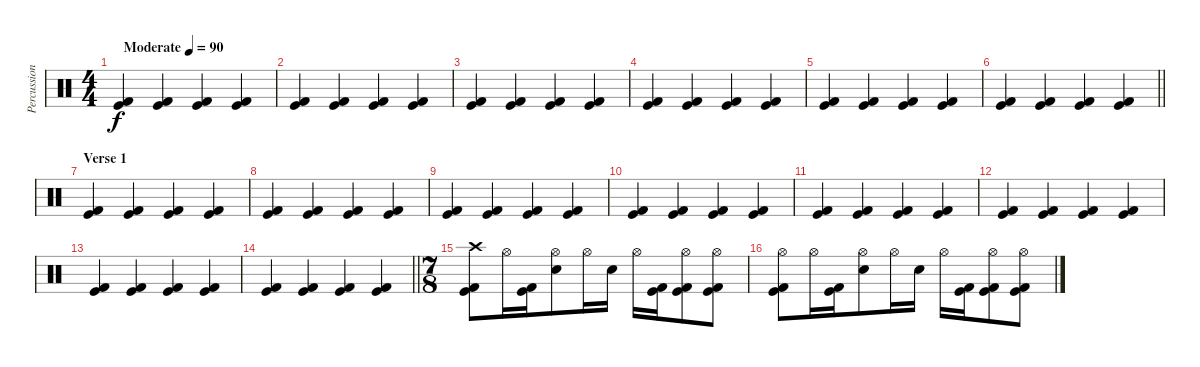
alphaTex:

\track ("Percussion" "Percussion") {instrument percussion}
\staff {score}
\articulation defaults
\ts (4 4)
\tempo (90 "Moderate")
\clef neutral
\ks c
("Kick (hit)" "Kick (hit) 2").4{dy f} ("Kick (hit)" "Kick (hit) 2").4 ("Kick (hit)" "Kick (hit) 2").4 ("Kick (hit)" "Kick (hit) 2").4 |
("Kick (hit)" "Kick (hit) 2").4 ("Kick (hit)" "Kick (hit) 2").4 ("Kick (hit)" "Kick (hit) 2").4 ("Kick (hit)" "Kick (hit) 2").4 |
("Kick (hit)" "Kick (hit) 2").4 ("Kick (hit)" "Kick (hit) 2").4 ("Kick (hit)" "Kick (hit) 2").4 ("Kick (hit)" "Kick (hit) 2").4 |
("Kick (hit)" "Kick (hit) 2").4 ("Kick (hit)" "Kick (hit) 2").4 ("Kick (hit)" "Kick (hit) 2").4 ("Kick (hit)" "Kick (hit) 2").4 |
("Kick (hit)" "Kick (hit) 2").4 ("Kick (hit)" "Kick (hit) 2").4 ("Kick (hit)" "Kick (hit) 2").4 ("Kick (hit)" "Kick (hit) 2").4 |
\barLineRight lightlight
("Kick (hit)" "Kick (hit) 2").4 ("Kick (hit)" "Kick (hit) 2").4 ("Kick (hit)" "Kick (hit) 2").4 ("Kick (hit)" "Kick (hit) 2").4 |
\section ("" "Verse 1")
("Kick (hit)" "Kick (hit) 2").4 ("Kick (hit)" "Kick (hit) 2").4 ("Kick (hit)" "Kick (hit) 2").4 ("Kick (hit)" "Kick (hit) 2").4 |
("Kick (hit)" "Kick (hit) 2").4 ("Kick (hit)" "Kick (hit) 2").4 ("Kick (hit)" "Kick (hit) 2").4 ("Kick (hit)" "Kick (hit) 2").4 |
("Kick (hit)" "Kick (hit) 2").4 ("Kick (hit)" "Kick (hit) 2").4 ("Kick (hit)" "Kick (hit) 2").4 ("Kick (hit)" "Kick (hit) 2").4 |
("Kick (hit)" "Kick (hit) 2").4 ("Kick (hit)" "Kick (hit) 2").4 ("Kick (hit)" "Kick (hit) 2").4 ("Kick (hit)" "Kick (hit) 2").4 |
("Kick (hit)" "Kick (hit) 2").4 ("Kick (hit)" "Kick (hit) 2").4 ("Kick (hit)" "Kick (hit) 2").4 ("Kick (hit)" "Kick (hit) 2").4 |
("Kick (hit)" "Kick (hit) 2").4 ("Kick (hit)" "Kick (hit) 2").4 ("Kick (hit)" "Kick (hit) 2").4 ("Kick (hit)" "Kick (hit) 2").4 |
("Kick (hit)" "Kick (hit) 2").4 ("Kick (hit)" "Kick (hit) 2").4 ("Kick (hit)" "Kick (hit) 2").4 ("Kick (hit)" "Kick (hit) 2").4 |
\barLineRight lightlight
("Kick (hit)" "Kick (hit) 2").4 ("Kick (hit)" "Kick (hit) 2").4 ("Kick (hit)" "Kick (hit) 2").4 ("Kick (hit)" "Kick (hit) 2").4 |
\ts (7 8)
\section ("" "")
("Crash high (hit)" "Kick (hit)" "Kick (hit) 2").8 "Hi-Hat (open)".16 ("Kick (hit)" "Kick (hit) 2").16 ("Hi-Hat (open)" "Electric Snare (hit)").8 "Hi-Hat (open)".16 "Electric Snare (hit)".16 "Hi-Hat (open)".16 ("Kick (hit)" "Kick (hit) 2").16 ("Hi-Hat (open)" "Kick (hit)" "Kick (hit) 2").8 ("Hi-Hat (open)" "Kick (hit)" "Kick (hit) 2").8 |
("Hi-Hat (open)" "Kick (hit)" "Kick (hit) 2").8 "Hi-Hat (open)".16 ("Kick (hit)" "Kick (hit) 2").16 ("Hi-Hat (open)" "Electric Snare (hit)").8 "Hi-Hat (open)".16 "Electric Snare (hit)".16 "Hi-Hat (open)".16 ("Kick (hit)" "Kick (hit) 2").16 ("Hi-Hat (open)" "Kick (hit)" "Kick (hit) 2").8 ("Hi-Hat (open)" "Kick (hit)" "Kick (hit) 2").8
